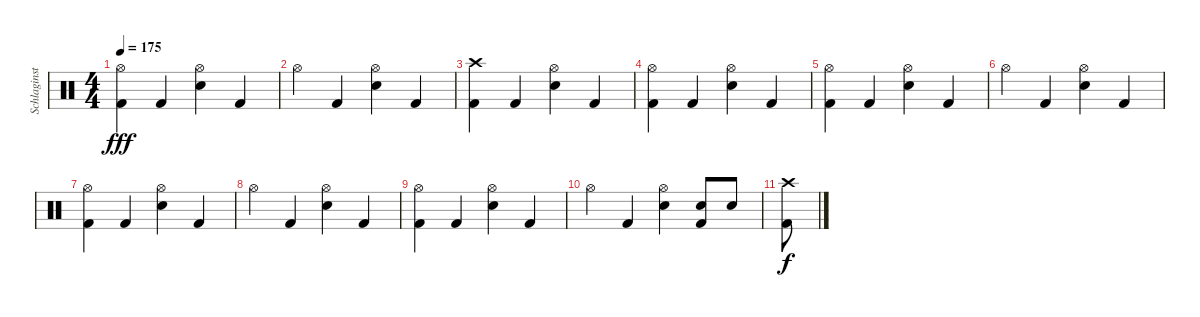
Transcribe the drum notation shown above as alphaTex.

\track ("Schlaginstrumente - Auswahl" "Schlaginst") {instrument percussion}
\staff {score}
\articulation defaults
\ts (4 4)
\tempo 175
\clef neutral
\ks c
("Hi-Hat (open)" "Kick (hit) 2").4{dy fff} "Kick (hit) 2".4 ("Hi-Hat (open)" "Electric Snare (hit)").4 "Kick (hit) 2".4 |
"Hi-Hat (open)".4 "Kick (hit) 2".4 ("Hi-Hat (open)" "Electric Snare (hit)").4 "Kick (hit) 2".4 |
("Crash high (hit)" "Kick (hit) 2").4 "Kick (hit) 2".4 ("Hi-Hat (open)" "Electric Snare (hit)").4 "Kick (hit) 2".4 |
("Hi-Hat (open)" "Kick (hit) 2").4 "Kick (hit) 2".4 ("Hi-Hat (open)" "Electric Snare (hit)").4 "Kick (hit) 2".4 |
("Hi-Hat (open)" "Kick (hit) 2").4 "Kick (hit) 2".4 ("Hi-Hat (open)" "Electric Snare (hit)").4 "Kick (hit) 2".4 |
"Hi-Hat (open)".4 "Kick (hit) 2".4 ("Hi-Hat (open)" "Electric Snare (hit)").4 "Kick (hit) 2".4 |
("Hi-Hat (open)" "Kick (hit) 2").4 "Kick (hit) 2".4 ("Hi-Hat (open)" "Electric Snare (hit)").4 "Kick (hit) 2".4 |
"Hi-Hat (open)".4 "Kick (hit) 2".4 ("Hi-Hat (open)" "Electric Snare (hit)").4 "Kick (hit) 2".4 |
("Hi-Hat (open)" "Kick (hit) 2").4 "Kick (hit) 2".4 ("Hi-Hat (open)" "Electric Snare (hit)").4 "Kick (hit) 2".4 |
"Hi-Hat (open)".4 "Kick (hit) 2".4 ("Hi-Hat (open)" "Electric Snare (hit)").4 ("Electric Snare (hit)" "Kick (hit) 2").8 "Electric Snare (hit)".8 |
("Crash high (hit)" "Kick (hit) 2").8{dy f}
